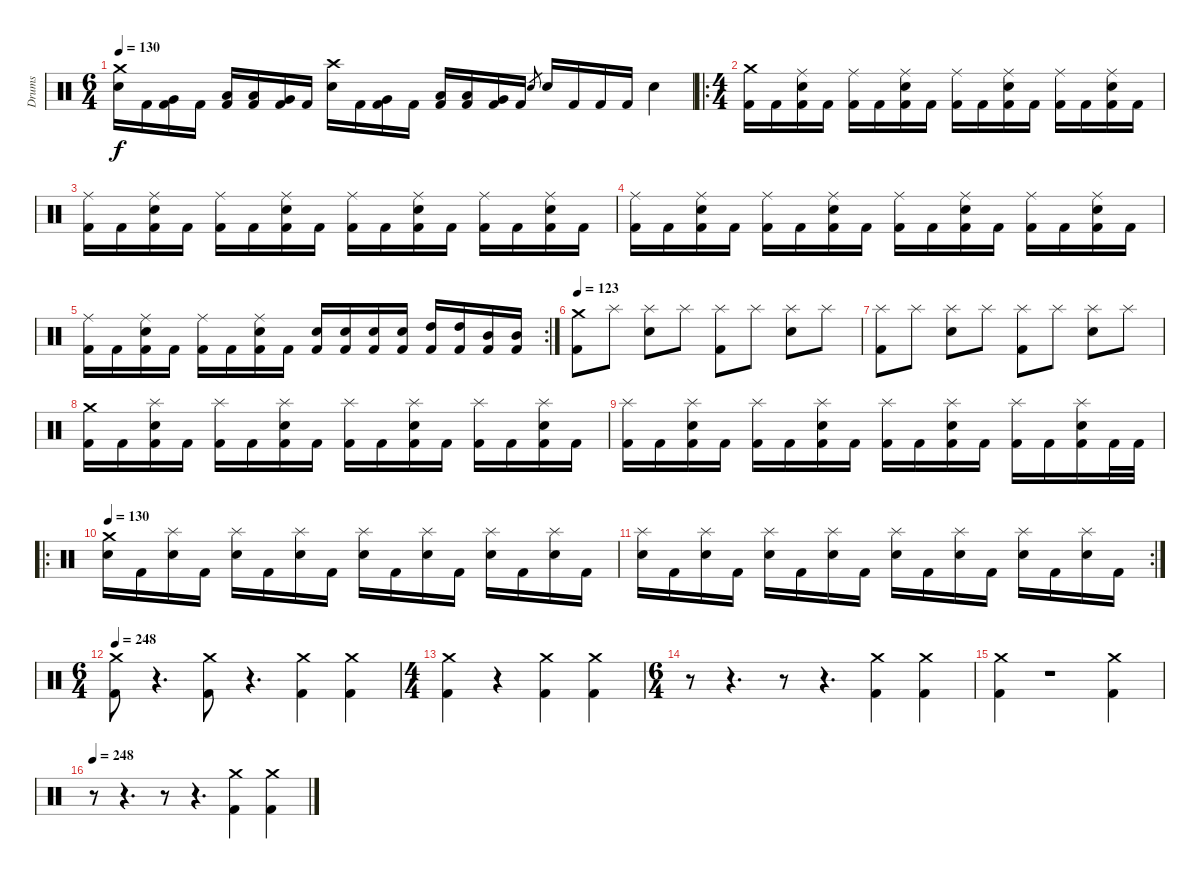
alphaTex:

\track ("Drums" "Drums") {instrument percussion}
\staff {score}
\articulation defaults
\ts (6 4)
\tempo 130
\clef neutral
\ks c
("Crash medium (hit)" "Snare (hit) 2").16{dy f} "Kick (hit) 2".16 ("Very Low Tom (hit)" "Kick (hit) 2").16 "Kick (hit) 2".16 ("Low Tom (hit)" "Kick (hit) 2").16 ("Low Tom (hit)" "Kick (hit) 2").16 ("Very Low Tom (hit)" "Kick (hit) 2").16 "Kick (hit) 2".16 ("Crash high (hit)" "Snare (hit) 2").16 "Kick (hit) 2".16 ("Very Low Tom (hit)" "Kick (hit) 2").16 "Kick (hit) 2".16 ("Low Tom (hit)" "Kick (hit) 2").16 ("Low Tom (hit)" "Kick (hit) 2").16 ("Very Low Tom (hit)" "Kick (hit) 2").16 "Kick (hit) 2".16 "Snare (hit) 2".8{gr} "Snare (hit) 2".16 "Kick (hit) 2".16 "Kick (hit) 2".16 "Kick (hit) 2".16 "Snare (hit) 2".4 |
\ro
\ts (4 4)
("Crash medium (hit)" "Kick (hit) 2").16 "Kick (hit) 2".16 ("Ride (middle)" "Snare (hit) 2" "Kick (hit) 2").16 "Kick (hit) 2".16 ("Ride (middle)" "Kick (hit) 2").16 "Kick (hit) 2".16 ("Ride (middle)" "Snare (hit) 2" "Kick (hit) 2").16 "Kick (hit) 2".16 ("Ride (middle)" "Kick (hit) 2").16 "Kick (hit) 2".16 ("Ride (middle)" "Snare (hit) 2" "Kick (hit) 2").16 "Kick (hit) 2".16 ("Ride (middle)" "Kick (hit) 2").16 "Kick (hit) 2".16 ("Ride (middle)" "Snare (hit) 2" "Kick (hit) 2").16 "Kick (hit) 2".16 |
("Ride (middle)" "Kick (hit) 2").16 "Kick (hit) 2".16 ("Ride (middle)" "Snare (hit) 2" "Kick (hit) 2").16 "Kick (hit) 2".16 ("Ride (middle)" "Kick (hit) 2").16 "Kick (hit) 2".16 ("Ride (middle)" "Snare (hit) 2" "Kick (hit) 2").16 "Kick (hit) 2".16 ("Ride (middle)" "Kick (hit) 2").16 "Kick (hit) 2".16 ("Ride (middle)" "Snare (hit) 2" "Kick (hit) 2").16 "Kick (hit) 2".16 ("Ride (middle)" "Kick (hit) 2").16 "Kick (hit) 2".16 ("Ride (middle)" "Snare (hit) 2" "Kick (hit) 2").16 "Kick (hit) 2".16 |
("Ride (middle)" "Kick (hit) 2").16 "Kick (hit) 2".16 ("Ride (middle)" "Snare (hit) 2" "Kick (hit) 2").16 "Kick (hit) 2".16 ("Ride (middle)" "Kick (hit) 2").16 "Kick (hit) 2".16 ("Ride (middle)" "Snare (hit) 2" "Kick (hit) 2").16 "Kick (hit) 2".16 ("Ride (middle)" "Kick (hit) 2").16 "Kick (hit) 2".16 ("Ride (middle)" "Snare (hit) 2" "Kick (hit) 2").16 "Kick (hit) 2".16 ("Ride (middle)" "Kick (hit) 2").16 "Kick (hit) 2".16 ("Ride (middle)" "Snare (hit) 2" "Kick (hit) 2").16 "Kick (hit) 2".16 |
\rc 2
("Ride (middle)" "Kick (hit) 2").16 "Kick (hit) 2".16 ("Ride (middle)" "Snare (hit) 2" "Kick (hit) 2").16 "Kick (hit) 2".16 ("Ride (middle)" "Kick (hit) 2").16 "Kick (hit) 2".16 ("Ride (middle)" "Snare (hit) 2" "Kick (hit) 2").16 "Kick (hit) 2".16 ("Snare (hit) 2" "Kick (hit) 2").16 ("Snare (hit) 2" "Kick (hit) 2").16 ("Snare (hit) 2" "Kick (hit) 2").16 ("Snare (hit) 2" "Kick (hit) 2").16 ("High Tom (hit)" "Kick (hit) 2").16 ("High Tom (hit)" "Kick (hit) 2").16 ("Mid Tom (hit)" "Kick (hit) 2").16 ("Mid Tom (hit)" "Kick (hit) 2").16 |
\tempo 123
("Crash medium (hit)" "Kick (hit) 2").8 "Splash (hit)".8 ("Splash (hit)" "Snare (hit) 2").8 "Splash (hit)".8 ("Splash (hit)" "Kick (hit) 2").8 "Splash (hit)".8 ("Splash (hit)" "Snare (hit) 2").8 "Splash (hit)".8 |
("Splash (hit)" "Kick (hit) 2").8 "Splash (hit)".8 ("Splash (hit)" "Snare (hit) 2").8 "Splash (hit)".8 ("Splash (hit)" "Kick (hit) 2").8 "Splash (hit)".8 ("Splash (hit)" "Snare (hit) 2").8 "Splash (hit)".8 |
("Crash medium (hit)" "Kick (hit) 2").16 "Kick (hit) 2".16 ("Splash (hit)" "Snare (hit) 2" "Kick (hit) 2").16 "Kick (hit) 2".16 ("Splash (hit)" "Kick (hit) 2").16 "Kick (hit) 2".16 ("Splash (hit)" "Snare (hit) 2" "Kick (hit) 2").16 "Kick (hit) 2".16 ("Splash (hit)" "Kick (hit) 2").16 "Kick (hit) 2".16 ("Splash (hit)" "Snare (hit) 2" "Kick (hit) 2").16 "Kick (hit) 2".16 ("Splash (hit)" "Kick (hit) 2").16 "Kick (hit) 2".16 ("Splash (hit)" "Snare (hit) 2" "Kick (hit) 2").16 "Kick (hit) 2".16 |
("Splash (hit)" "Kick (hit) 2").16 "Kick (hit) 2".16 ("Splash (hit)" "Snare (hit) 2" "Kick (hit) 2").16 "Kick (hit) 2".16 ("Splash (hit)" "Kick (hit) 2").16 "Kick (hit) 2".16 ("Splash (hit)" "Snare (hit) 2" "Kick (hit) 2").16 "Kick (hit) 2".16 ("Splash (hit)" "Kick (hit) 2").16 "Kick (hit) 2".16 ("Splash (hit)" "Snare (hit) 2" "Kick (hit) 2").16 "Kick (hit) 2".16 ("Splash (hit)" "Kick (hit) 2").16 "Kick (hit) 2".16 ("Splash (hit)" "Snare (hit) 2" "Kick (hit) 2").16 "Kick (hit) 2".32 "Kick (hit) 2".32 |
\ro
\tempo 130
("Crash medium (hit)" "Snare (hit) 2").16 "Kick (hit) 2".16 ("Splash (hit)" "Snare (hit) 2").16 "Kick (hit) 2".16 ("Splash (hit)" "Snare (hit) 2").16 "Kick (hit) 2".16 ("Splash (hit)" "Snare (hit) 2").16 "Kick (hit) 2".16 ("Splash (hit)" "Snare (hit) 2").16 "Kick (hit) 2".16 ("Splash (hit)" "Snare (hit) 2").16 "Kick (hit) 2".16 ("Splash (hit)" "Snare (hit) 2").16 "Kick (hit) 2".16 ("Splash (hit)" "Snare (hit) 2").16 "Kick (hit) 2".16 |
\rc 2
("Splash (hit)" "Snare (hit) 2").16 "Kick (hit) 2".16 ("Splash (hit)" "Snare (hit) 2").16 "Kick (hit) 2".16 ("Splash (hit)" "Snare (hit) 2").16 "Kick (hit) 2".16 ("Splash (hit)" "Snare (hit) 2").16 "Kick (hit) 2".16 ("Splash (hit)" "Snare (hit) 2").16 "Kick (hit) 2".16 ("Splash (hit)" "Snare (hit) 2").16 "Kick (hit) 2".16 ("Splash (hit)" "Snare (hit) 2").16 "Kick (hit) 2".16 ("Splash (hit)" "Snare (hit) 2").16 "Kick (hit) 2".16 |
\ts (6 4)
\tempo 248
("Crash medium (hit)" "Kick (hit) 2").8 r.4{d} ("Crash medium (hit)" "Kick (hit) 2").8 r.4{d} ("Crash medium (hit)" "Kick (hit) 2").4 ("Crash medium (hit)" "Kick (hit) 2").4 |
\ts (4 4)
("Crash medium (hit)" "Kick (hit) 2").4 r.4 ("Crash medium (hit)" "Kick (hit) 2").4 ("Crash medium (hit)" "Kick (hit) 2").4 |
\ts (6 4)
r.8 r.4{d} r.8 r.4{d} ("Crash medium (hit)" "Kick (hit) 2").4 ("Crash medium (hit)" "Kick (hit) 2").4 |
("Crash medium (hit)" "Kick (hit) 2").4 r.1 ("Crash medium (hit)" "Kick (hit) 2").4 |
\tempo 248
r.8 r.4{d} r.8 r.4{d} ("Crash medium (hit)" "Kick (hit) 2").4 ("Crash medium (hit)" "Kick (hit) 2").4
